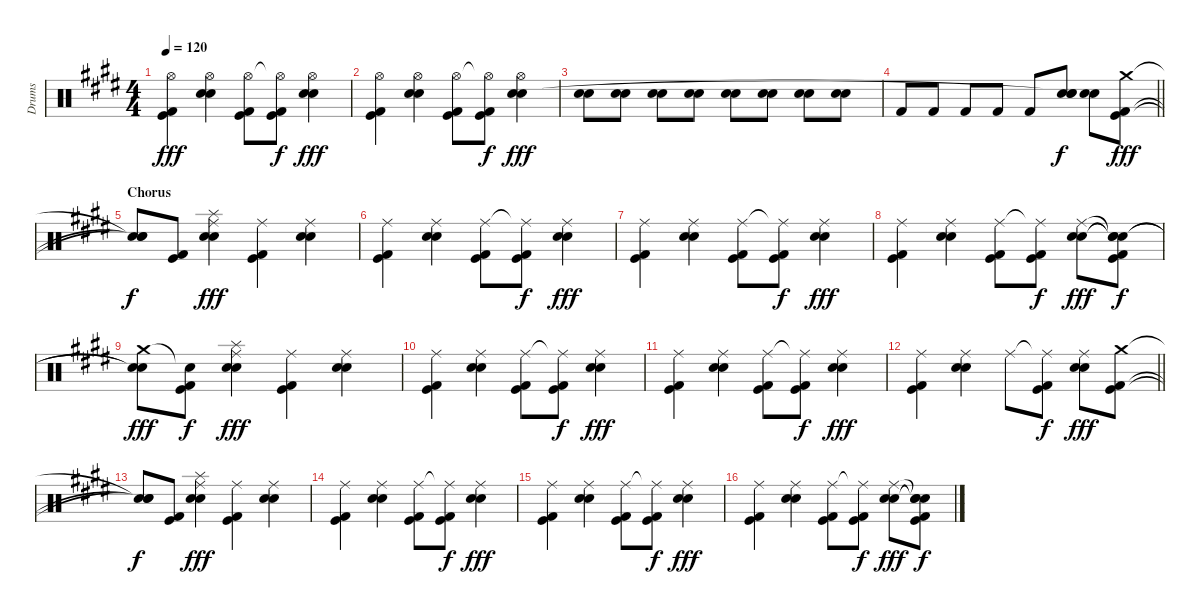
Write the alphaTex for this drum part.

\track ("Drums" "Drums") {instrument percussion}
\staff {score}
\articulation defaults
\ts (4 4)
\tempo 120
\clef neutral
\ks e
("Hi-Hat (open)" "Kick (hit)" "Kick (hit) 2").4{dy fff} ("Hi-Hat (open)" "Electric Snare (hit)" "Snare (hit) 2").4 ("Hi-Hat (open)" "Kick (hit)" "Kick (hit) 2").8 ("Hi-Hat (open)"{t} "Kick (hit)" "Kick (hit) 2").8{dy f} ("Hi-Hat (open)" "Electric Snare (hit)" "Snare (hit) 2").4{dy fff} |
("Hi-Hat (open)" "Kick (hit)" "Kick (hit) 2").4 ("Hi-Hat (open)" "Electric Snare (hit)" "Snare (hit) 2").4 ("Hi-Hat (open)" "Kick (hit)" "Kick (hit) 2").8 ("Hi-Hat (open)"{t} "Kick (hit)" "Kick (hit) 2").8{dy f} ("Hi-Hat (open)" "Electric Snare (hit)" "Snare (hit) 2").4{dy fff} |
("Electric Snare (hit)" "Snare (hit) 2").8 ("Electric Snare (hit)" "Snare (hit) 2").8 ("Electric Snare (hit)" "Snare (hit) 2").8 ("Electric Snare (hit)" "Snare (hit) 2").8 ("Electric Snare (hit)" "Snare (hit) 2").8 ("Electric Snare (hit)" "Snare (hit) 2").8 ("Electric Snare (hit)" "Snare (hit) 2").8 ("Electric Snare (hit)" "Snare (hit) 2").8 |
\barLineRight lightlight "Kick (hit) 2".8 "Kick (hit) 2".8 "Kick (hit) 2".8 "Kick (hit) 2".8 "Kick (hit) 2".8
("Electric Snare (hit)" "Snare (hit) 2" "Snare (hit)"{t}).8{dy f} ("Electric Snare (hit)" "Snare (hit) 2").8 ("Crash medium (hit)" "Kick (hit)" "Kick (hit) 2").8{dy fff} |
\section ("" "Chorus")
("Snare (hit)"{t} "Snare (hit)"{t} "Snare (hit)"{t}).8{dy f} ("Kick (hit)" "Kick (hit) 2").8 ("Ride (middle)" "Electric Snare (hit)" "Snare (hit) 2" "Splash (hit)").4{dy fff} ("Ride (middle)" "Kick (hit)" "Kick (hit) 2").4 ("Ride (middle)" "Electric Snare (hit)" "Snare (hit) 2").4 |
("Ride (middle)" "Kick (hit)" "Kick (hit) 2").4 ("Ride (middle)" "Electric Snare (hit)" "Snare (hit) 2").4 ("Ride (middle)" "Kick (hit)" "Kick (hit) 2").8 ("Ride (middle)"{t} "Kick (hit)" "Kick (hit) 2").8{dy f} ("Ride (middle)" "Electric Snare (hit)" "Snare (hit) 2").4{dy fff} |
("Ride (middle)" "Kick (hit)" "Kick (hit) 2").4 ("Ride (middle)" "Electric Snare (hit)" "Snare (hit) 2").4 ("Ride (middle)" "Kick (hit)" "Kick (hit) 2").8 ("Ride (middle)"{t} "Kick (hit)" "Kick (hit) 2").8{dy f} ("Ride (middle)" "Electric Snare (hit)" "Snare (hit) 2").4{dy fff} |
("Ride (middle)" "Kick (hit)" "Kick (hit) 2").4 ("Ride (middle)" "Electric Snare (hit)" "Snare (hit) 2").4 ("Ride (middle)" "Kick (hit)" "Kick (hit) 2").8 ("Ride (middle)"{t} "Kick (hit)" "Kick (hit) 2").8{dy f} ("Ride (middle)" "Electric Snare (hit)" "Snare (hit) 2").8{dy fff} ("Snare (hit)"{t} "Snare (hit)"{t} "Snare (hit)"{t} "Kick (hit)" "Kick (hit) 2").8{dy f} |
("Crash medium (hit)" "Snare (hit)"{t} "Snare (hit)"{t}).8{dy fff} ("Snare (hit)"{t} "Kick (hit)" "Kick (hit) 2").8{dy f} ("Ride (middle)" "Electric Snare (hit)" "Snare (hit) 2" "Splash (hit)").4{dy fff} ("Ride (middle)" "Kick (hit)" "Kick (hit) 2").4 ("Ride (middle)" "Electric Snare (hit)" "Snare (hit) 2").4 |
("Ride (middle)" "Kick (hit)" "Kick (hit) 2").4 ("Ride (middle)" "Electric Snare (hit)" "Snare (hit) 2").4 ("Ride (middle)" "Kick (hit)" "Kick (hit) 2").8 ("Ride (middle)"{t} "Kick (hit)" "Kick (hit) 2").8{dy f} ("Ride (middle)" "Electric Snare (hit)" "Snare (hit) 2").4{dy fff} |
("Ride (middle)" "Kick (hit)" "Kick (hit) 2").4 ("Ride (middle)" "Electric Snare (hit)" "Snare (hit) 2").4 ("Ride (middle)" "Kick (hit)" "Kick (hit) 2").8 ("Ride (middle)"{t} "Kick (hit)" "Kick (hit) 2").8{dy f} ("Ride (middle)" "Electric Snare (hit)" "Snare (hit) 2").4{dy fff} |
\barLineRight lightlight
("Ride (middle)" "Kick (hit)" "Kick (hit) 2").4 ("Ride (middle)" "Electric Snare (hit)" "Snare (hit) 2").4 "Ride (middle)".8 ("Ride (middle)"{t} "Kick (hit)" "Kick (hit) 2").8{dy f} ("Ride (middle)" "Electric Snare (hit)" "Snare (hit) 2").8{dy fff} ("Crash medium (hit)" "Kick (hit)" "Kick (hit) 2").8 |
("Snare (hit)"{t} "Snare (hit)"{t} "Snare (hit)"{t}).8{dy f} ("Kick (hit)" "Kick (hit) 2").8 ("Ride (middle)" "Electric Snare (hit)" "Snare (hit) 2" "Splash (hit)").4{dy fff} ("Ride (middle)" "Kick (hit)" "Kick (hit) 2").4 ("Ride (middle)" "Electric Snare (hit)" "Snare (hit) 2").4 |
("Ride (middle)" "Kick (hit)" "Kick (hit) 2").4 ("Ride (middle)" "Electric Snare (hit)" "Snare (hit) 2").4 ("Ride (middle)" "Kick (hit)" "Kick (hit) 2").8 ("Ride (middle)"{t} "Kick (hit)" "Kick (hit) 2").8{dy f} ("Ride (middle)" "Electric Snare (hit)" "Snare (hit) 2").4{dy fff} |
("Ride (middle)" "Kick (hit)" "Kick (hit) 2").4 ("Ride (middle)" "Electric Snare (hit)" "Snare (hit) 2").4 ("Ride (middle)" "Kick (hit)" "Kick (hit) 2").8 ("Ride (middle)"{t} "Kick (hit)" "Kick (hit) 2").8{dy f} ("Ride (middle)" "Electric Snare (hit)" "Snare (hit) 2").4{dy fff} |
("Ride (middle)" "Kick (hit)" "Kick (hit) 2").4 ("Ride (middle)" "Electric Snare (hit)" "Snare (hit) 2").4 ("Ride (middle)" "Kick (hit)" "Kick (hit) 2").8 ("Ride (middle)"{t} "Kick (hit)" "Kick (hit) 2").8{dy f} ("Ride (middle)" "Electric Snare (hit)" "Snare (hit) 2").8{dy fff} ("Snare (hit)"{t} "Snare (hit)"{t} "Snare (hit)"{t} "Kick (hit)" "Kick (hit) 2").8{dy f}
